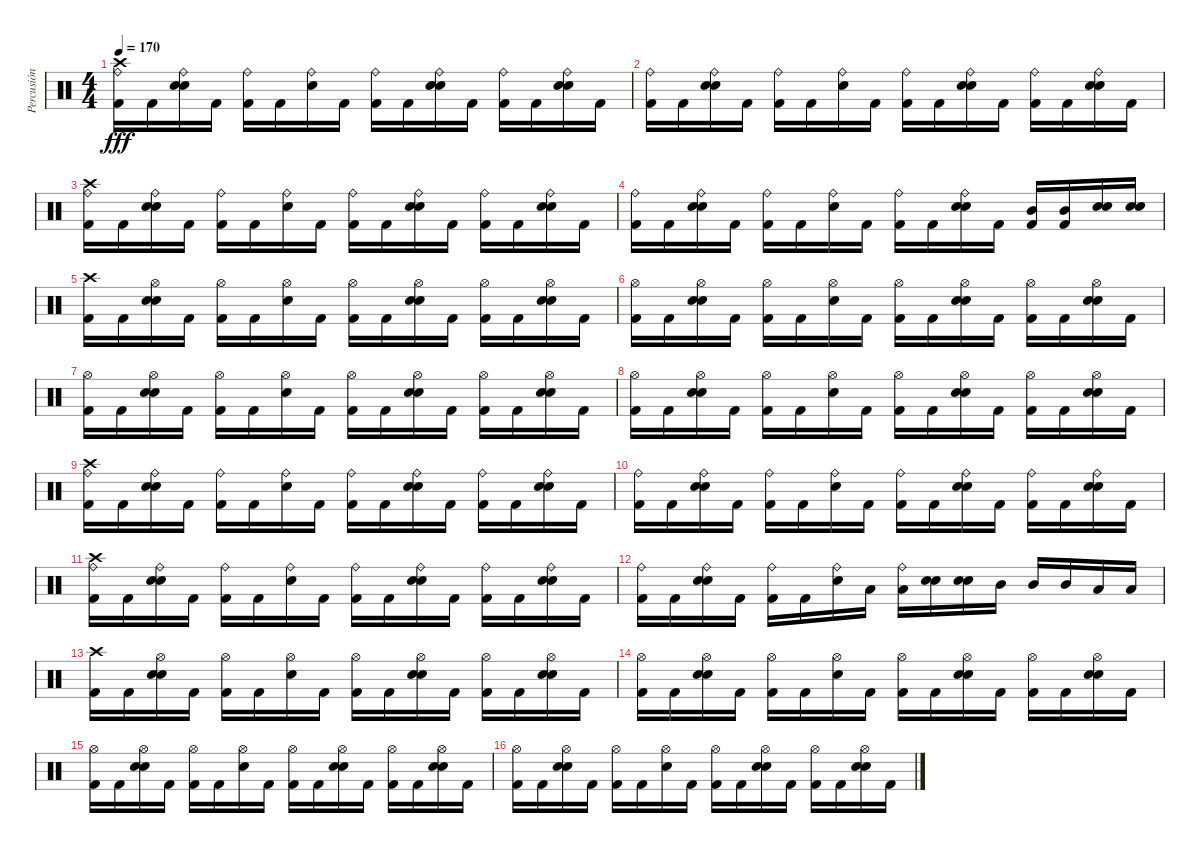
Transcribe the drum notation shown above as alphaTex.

\track ("Percusión" "Percusión") {instrument percussion}
\staff {score}
\articulation defaults
\ts (4 4)
\tempo 170
\clef neutral
\ks c
("Kick (hit) 2" "Ride (bell)" "Crash high (hit)").16{dy fff} "Kick (hit) 2".16 ("Snare (hit) 2" "Electric Snare (hit)" "Ride (bell)").16 "Kick (hit) 2".16 ("Kick (hit) 2" "Ride (bell)").16 "Kick (hit) 2".16 ("Snare (hit) 2" "Ride (bell)").16 "Kick (hit) 2".16 ("Kick (hit) 2" "Ride (bell)").16 "Kick (hit) 2".16 ("Snare (hit) 2" "Electric Snare (hit)" "Ride (bell)").16 "Kick (hit) 2".16 ("Kick (hit) 2" "Ride (bell)").16 "Kick (hit) 2".16 ("Snare (hit) 2" "Electric Snare (hit)" "Ride (bell)").16 "Kick (hit) 2".16 |
("Kick (hit) 2" "Ride (bell)").16 "Kick (hit) 2".16 ("Snare (hit) 2" "Electric Snare (hit)" "Ride (bell)").16 "Kick (hit) 2".16 ("Kick (hit) 2" "Ride (bell)").16 "Kick (hit) 2".16 ("Snare (hit) 2" "Ride (bell)").16 "Kick (hit) 2".16 ("Kick (hit) 2" "Ride (bell)").16 "Kick (hit) 2".16 ("Snare (hit) 2" "Electric Snare (hit)" "Ride (bell)").16 "Kick (hit) 2".16 ("Kick (hit) 2" "Ride (bell)").16 "Kick (hit) 2".16 ("Snare (hit) 2" "Electric Snare (hit)" "Ride (bell)").16 "Kick (hit) 2".16 |
("Kick (hit) 2" "Ride (bell)" "Crash high (hit)").16 "Kick (hit) 2".16 ("Snare (hit) 2" "Electric Snare (hit)" "Ride (bell)").16 "Kick (hit) 2".16 ("Kick (hit) 2" "Ride (bell)").16 "Kick (hit) 2".16 ("Snare (hit) 2" "Ride (bell)").16 "Kick (hit) 2".16 ("Kick (hit) 2" "Ride (bell)").16 "Kick (hit) 2".16 ("Snare (hit) 2" "Electric Snare (hit)" "Ride (bell)").16 "Kick (hit) 2".16 ("Kick (hit) 2" "Ride (bell)").16 "Kick (hit) 2".16 ("Snare (hit) 2" "Electric Snare (hit)" "Ride (bell)").16 "Kick (hit) 2".16 |
("Kick (hit) 2" "Ride (bell)").16 "Kick (hit) 2".16 ("Snare (hit) 2" "Electric Snare (hit)" "Ride (bell)").16 "Kick (hit) 2".16 ("Kick (hit) 2" "Ride (bell)").16 "Kick (hit) 2".16 ("Snare (hit) 2" "Ride (bell)").16 "Kick (hit) 2".16 ("Kick (hit) 2" "Ride (bell)").16 "Kick (hit) 2".16 ("Snare (hit) 2" "Electric Snare (hit)" "Ride (bell)").16 "Kick (hit) 2".16 ("Kick (hit) 2" "Mid Tom (hit)").16 ("Kick (hit) 2" "Mid Tom (hit)").16 ("Snare (hit) 2" "Electric Snare (hit)").16 ("Snare (hit) 2" "Electric Snare (hit)").16 |
("Kick (hit) 2" "Crash high (hit)").16 "Kick (hit) 2".16 ("Snare (hit) 2" "Electric Snare (hit)" "Hi-Hat (open)").16 "Kick (hit) 2".16 ("Kick (hit) 2" "Hi-Hat (open)").16 "Kick (hit) 2".16 ("Snare (hit) 2" "Hi-Hat (open)").16 "Kick (hit) 2".16 ("Kick (hit) 2" "Hi-Hat (open)").16 "Kick (hit) 2".16 ("Snare (hit) 2" "Electric Snare (hit)" "Hi-Hat (open)").16 "Kick (hit) 2".16 ("Kick (hit) 2" "Hi-Hat (open)").16 "Kick (hit) 2".16 ("Snare (hit) 2" "Electric Snare (hit)" "Hi-Hat (open)").16 "Kick (hit) 2".16 |
("Kick (hit) 2" "Hi-Hat (open)").16 "Kick (hit) 2".16 ("Snare (hit) 2" "Electric Snare (hit)" "Hi-Hat (open)").16 "Kick (hit) 2".16 ("Kick (hit) 2" "Hi-Hat (open)").16 "Kick (hit) 2".16 ("Snare (hit) 2" "Hi-Hat (open)").16 "Kick (hit) 2".16 ("Kick (hit) 2" "Hi-Hat (open)").16 "Kick (hit) 2".16 ("Snare (hit) 2" "Electric Snare (hit)" "Hi-Hat (open)").16 "Kick (hit) 2".16 ("Kick (hit) 2" "Hi-Hat (open)").16 "Kick (hit) 2".16 ("Snare (hit) 2" "Electric Snare (hit)" "Hi-Hat (open)").16 "Kick (hit) 2".16 |
("Kick (hit) 2" "Hi-Hat (open)").16 "Kick (hit) 2".16 ("Snare (hit) 2" "Electric Snare (hit)" "Hi-Hat (open)").16 "Kick (hit) 2".16 ("Kick (hit) 2" "Hi-Hat (open)").16 "Kick (hit) 2".16 ("Snare (hit) 2" "Hi-Hat (open)").16 "Kick (hit) 2".16 ("Kick (hit) 2" "Hi-Hat (open)").16 "Kick (hit) 2".16 ("Snare (hit) 2" "Electric Snare (hit)" "Hi-Hat (open)").16 "Kick (hit) 2".16 ("Kick (hit) 2" "Hi-Hat (open)").16 "Kick (hit) 2".16 ("Snare (hit) 2" "Electric Snare (hit)" "Hi-Hat (open)").16 "Kick (hit) 2".16 |
("Kick (hit) 2" "Hi-Hat (open)").16 "Kick (hit) 2".16 ("Snare (hit) 2" "Electric Snare (hit)" "Hi-Hat (open)").16 "Kick (hit) 2".16 ("Kick (hit) 2" "Hi-Hat (open)").16 "Kick (hit) 2".16 ("Snare (hit) 2" "Hi-Hat (open)").16 "Kick (hit) 2".16 ("Kick (hit) 2" "Hi-Hat (open)").16 "Kick (hit) 2".16 ("Snare (hit) 2" "Electric Snare (hit)" "Hi-Hat (open)").16 "Kick (hit) 2".16 ("Kick (hit) 2" "Hi-Hat (open)").16 "Kick (hit) 2".16 ("Snare (hit) 2" "Electric Snare (hit)" "Hi-Hat (open)").16 "Kick (hit) 2".16 |
("Kick (hit) 2" "Ride (bell)" "Crash high (hit)").16 "Kick (hit) 2".16 ("Snare (hit) 2" "Electric Snare (hit)" "Ride (bell)").16 "Kick (hit) 2".16 ("Kick (hit) 2" "Ride (bell)").16 "Kick (hit) 2".16 ("Snare (hit) 2" "Ride (bell)").16 "Kick (hit) 2".16 ("Kick (hit) 2" "Ride (bell)").16 "Kick (hit) 2".16 ("Snare (hit) 2" "Electric Snare (hit)" "Ride (bell)").16 "Kick (hit) 2".16 ("Kick (hit) 2" "Ride (bell)").16 "Kick (hit) 2".16 ("Snare (hit) 2" "Electric Snare (hit)" "Ride (bell)").16 "Kick (hit) 2".16 |
("Kick (hit) 2" "Ride (bell)").16 "Kick (hit) 2".16 ("Snare (hit) 2" "Electric Snare (hit)" "Ride (bell)").16 "Kick (hit) 2".16 ("Kick (hit) 2" "Ride (bell)").16 "Kick (hit) 2".16 ("Snare (hit) 2" "Ride (bell)").16 "Kick (hit) 2".16 ("Kick (hit) 2" "Ride (bell)").16 "Kick (hit) 2".16 ("Snare (hit) 2" "Electric Snare (hit)" "Ride (bell)").16 "Kick (hit) 2".16 ("Kick (hit) 2" "Ride (bell)").16 "Kick (hit) 2".16 ("Snare (hit) 2" "Electric Snare (hit)" "Ride (bell)").16 "Kick (hit) 2".16 |
("Kick (hit) 2" "Ride (bell)" "Crash high (hit)").16 "Kick (hit) 2".16 ("Snare (hit) 2" "Electric Snare (hit)" "Ride (bell)").16 "Kick (hit) 2".16 ("Kick (hit) 2" "Ride (bell)").16 "Kick (hit) 2".16 ("Snare (hit) 2" "Ride (bell)").16 "Kick (hit) 2".16 ("Kick (hit) 2" "Ride (bell)").16 "Kick (hit) 2".16 ("Snare (hit) 2" "Electric Snare (hit)" "Ride (bell)").16 "Kick (hit) 2".16 ("Kick (hit) 2" "Ride (bell)").16 "Kick (hit) 2".16 ("Snare (hit) 2" "Electric Snare (hit)" "Ride (bell)").16 "Kick (hit) 2".16 |
("Kick (hit) 2" "Ride (bell)").16 "Kick (hit) 2".16 ("Snare (hit) 2" "Electric Snare (hit)" "Ride (bell)").16 "Kick (hit) 2".16 ("Kick (hit) 2" "Ride (bell)").16 "Kick (hit) 2".16 ("Snare (hit) 2" "Ride (bell)").16 "Low Tom (hit)".16 ("Low Tom (hit)" "Ride (bell)").16 ("Snare (hit) 2" "Electric Snare (hit)").16 ("Snare (hit) 2" "Electric Snare (hit)").16 "Mid Tom (hit)".16 "Mid Tom (hit)".16 "Mid Tom (hit)".16 "Low Tom (hit)".16 "Low Tom (hit)".16 |
("Kick (hit) 2" "Crash high (hit)").16 "Kick (hit) 2".16 ("Snare (hit) 2" "Electric Snare (hit)" "Hi-Hat (open)").16 "Kick (hit) 2".16 ("Kick (hit) 2" "Hi-Hat (open)").16 "Kick (hit) 2".16 ("Snare (hit) 2" "Hi-Hat (open)").16 "Kick (hit) 2".16 ("Kick (hit) 2" "Hi-Hat (open)").16 "Kick (hit) 2".16 ("Snare (hit) 2" "Electric Snare (hit)" "Hi-Hat (open)").16 "Kick (hit) 2".16 ("Kick (hit) 2" "Hi-Hat (open)").16 "Kick (hit) 2".16 ("Snare (hit) 2" "Electric Snare (hit)" "Hi-Hat (open)").16 "Kick (hit) 2".16 |
("Kick (hit) 2" "Hi-Hat (open)").16 "Kick (hit) 2".16 ("Snare (hit) 2" "Electric Snare (hit)" "Hi-Hat (open)").16 "Kick (hit) 2".16 ("Kick (hit) 2" "Hi-Hat (open)").16 "Kick (hit) 2".16 ("Snare (hit) 2" "Hi-Hat (open)").16 "Kick (hit) 2".16 ("Kick (hit) 2" "Hi-Hat (open)").16 "Kick (hit) 2".16 ("Snare (hit) 2" "Electric Snare (hit)" "Hi-Hat (open)").16 "Kick (hit) 2".16 ("Kick (hit) 2" "Hi-Hat (open)").16 "Kick (hit) 2".16 ("Snare (hit) 2" "Electric Snare (hit)" "Hi-Hat (open)").16 "Kick (hit) 2".16 |
("Kick (hit) 2" "Hi-Hat (open)").16 "Kick (hit) 2".16 ("Snare (hit) 2" "Electric Snare (hit)" "Hi-Hat (open)").16 "Kick (hit) 2".16 ("Kick (hit) 2" "Hi-Hat (open)").16 "Kick (hit) 2".16 ("Snare (hit) 2" "Hi-Hat (open)").16 "Kick (hit) 2".16 ("Kick (hit) 2" "Hi-Hat (open)").16 "Kick (hit) 2".16 ("Snare (hit) 2" "Electric Snare (hit)" "Hi-Hat (open)").16 "Kick (hit) 2".16 ("Kick (hit) 2" "Hi-Hat (open)").16 "Kick (hit) 2".16 ("Snare (hit) 2" "Electric Snare (hit)" "Hi-Hat (open)").16 "Kick (hit) 2".16 |
("Kick (hit) 2" "Hi-Hat (open)").16 "Kick (hit) 2".16 ("Snare (hit) 2" "Electric Snare (hit)" "Hi-Hat (open)").16 "Kick (hit) 2".16 ("Kick (hit) 2" "Hi-Hat (open)").16 "Kick (hit) 2".16 ("Snare (hit) 2" "Hi-Hat (open)").16 "Kick (hit) 2".16 ("Kick (hit) 2" "Hi-Hat (open)").16 "Kick (hit) 2".16 ("Snare (hit) 2" "Electric Snare (hit)" "Hi-Hat (open)").16 "Kick (hit) 2".16 ("Kick (hit) 2" "Hi-Hat (open)").16 "Kick (hit) 2".16 ("Snare (hit) 2" "Electric Snare (hit)" "Hi-Hat (open)").16 "Kick (hit) 2".16
